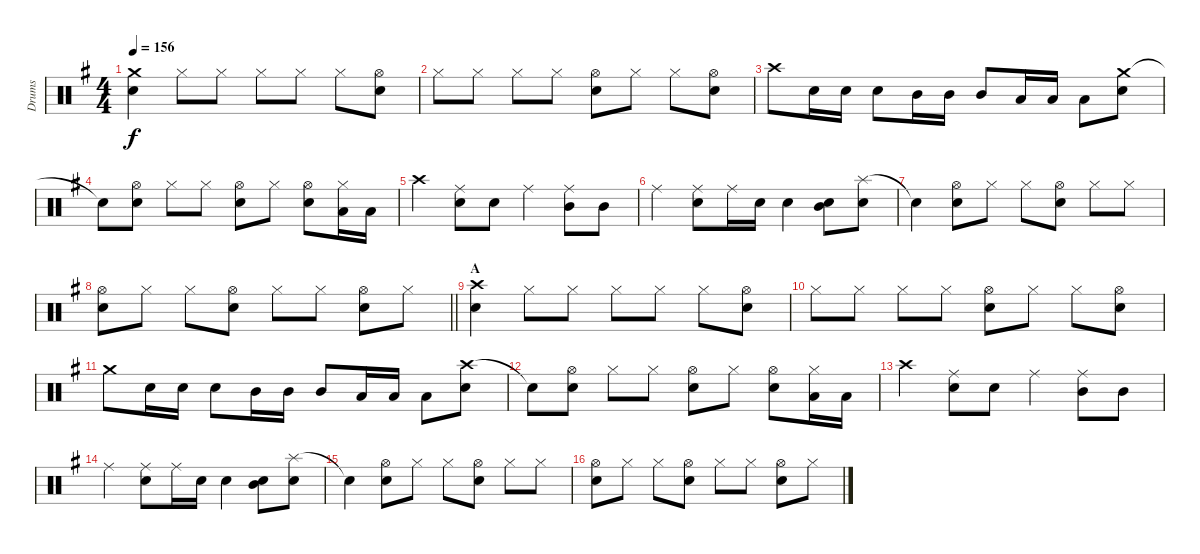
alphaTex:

\track ("Drums" "Drums") {instrument percussion}
\staff {score}
\articulation defaults
\ts (4 4)
\tempo 156
\clef neutral
\ks g
("Crash medium (hit)" "Snare (hit) 2").4{dy f} "Hi-Hat (closed)".8 "Hi-Hat (closed)".8 "Hi-Hat (closed)".8 "Hi-Hat (closed)".8 "Hi-Hat (closed)".8 ("Hi-Hat (open)" "Snare (hit) 2").8 |
"Hi-Hat (closed)".8 "Hi-Hat (closed)".8 "Hi-Hat (closed)".8 "Hi-Hat (closed)".8 ("Hi-Hat (open)" "Snare (hit) 2").8 "Hi-Hat (closed)".8 "Hi-Hat (closed)".8 ("Hi-Hat (open)" "Snare (hit) 2").8 |
"Crash high (hit)".8 "Snare (hit) 2".16 "Snare (hit) 2".16 "Snare (hit) 2".8 "Mid Tom (hit)".16 "Mid Tom (hit)".16 "Mid Tom (hit)".8 "Low Tom (hit)".16 "Low Tom (hit)".16 "Low Tom (hit)".8 ("Crash medium (hit)" "Snare (hit) 2").8 |
"Snare (hit)"{t}.8 ("Hi-Hat (open)" "Snare (hit) 2").8 "Hi-Hat (closed)".8 "Hi-Hat (closed)".8 ("Hi-Hat (open)" "Snare (hit) 2").8 "Hi-Hat (closed)".8 ("Hi-Hat (open)" "Snare (hit) 2").8 ("Hi-Hat (closed)" "Low Tom (hit)").16 "Low Tom (hit)".16 |
"Crash high (hit)".4 ("Ride (middle)" "Snare (hit) 2").8 "Snare (hit) 2".8 "Ride (middle)".4 ("Ride (middle)" "Mid Tom (hit)").8 "Mid Tom (hit)".8 |
"Ride (middle)".4 ("Ride (middle)" "Snare (hit) 2").8 "Ride (middle)".16 "Snare (hit) 2".16 "Snare (hit) 2".4 ("Mid Tom (hit)" "Snare (hit) 2").8 ("Splash (hit)" "Snare (hit) 2").8 |
"Snare (hit)"{t}.4 ("Hi-Hat (open)" "Snare (hit) 2").8 "Hi-Hat (closed)".8 "Hi-Hat (closed)".8 ("Hi-Hat (open)" "Snare (hit) 2").8 "Hi-Hat (closed)".8 "Hi-Hat (closed)".8 |
\barLineRight lightlight
("Hi-Hat (open)" "Snare (hit) 2").8 "Hi-Hat (closed)".8 "Hi-Hat (closed)".8 ("Hi-Hat (open)" "Snare (hit) 2").8 "Hi-Hat (closed)".8 "Hi-Hat (closed)".8 ("Hi-Hat (open)" "Snare (hit) 2").8 "Hi-Hat (closed)".8 |
\section ("" "A")
("Crash high (hit)" "Snare (hit) 2").4 "Hi-Hat (closed)".8 "Hi-Hat (closed)".8 "Hi-Hat (closed)".8 "Hi-Hat (closed)".8 "Hi-Hat (closed)".8 ("Hi-Hat (open)" "Snare (hit) 2").8 |
"Hi-Hat (closed)".8 "Hi-Hat (closed)".8 "Hi-Hat (closed)".8 "Hi-Hat (closed)".8 ("Hi-Hat (open)" "Snare (hit) 2").8 "Hi-Hat (closed)".8 "Hi-Hat (closed)".8 ("Hi-Hat (open)" "Snare (hit) 2").8 |
"Crash medium (hit)".8 "Snare (hit) 2".16 "Snare (hit) 2".16 "Snare (hit) 2".8 "Mid Tom (hit)".16 "Mid Tom (hit)".16 "Mid Tom (hit)".8 "Low Tom (hit)".16 "Low Tom (hit)".16 "Low Tom (hit)".8 ("Crash high (hit)" "Snare (hit) 2").8 |
"Snare (hit)"{t}.8 ("Hi-Hat (open)" "Snare (hit) 2").8 "Hi-Hat (closed)".8 "Hi-Hat (closed)".8 ("Hi-Hat (open)" "Snare (hit) 2").8 "Hi-Hat (closed)".8 ("Hi-Hat (open)" "Snare (hit) 2").8 ("Hi-Hat (closed)" "Low Tom (hit)").16 "Low Tom (hit)".16 |
"Crash high (hit)".4 ("Ride (middle)" "Snare (hit) 2").8 "Snare (hit) 2".8 "Ride (middle)".4 ("Ride (middle)" "Mid Tom (hit)").8 "Mid Tom (hit)".8 |
"Ride (middle)".4 ("Ride (middle)" "Snare (hit) 2").8 "Ride (middle)".16 "Snare (hit) 2".16 "Snare (hit) 2".4 ("Mid Tom (hit)" "Snare (hit) 2").8 ("Splash (hit)" "Snare (hit) 2").8 |
"Snare (hit)"{t}.4 ("Hi-Hat (open)" "Snare (hit) 2").8 "Hi-Hat (closed)".8 "Hi-Hat (closed)".8 ("Hi-Hat (open)" "Snare (hit) 2").8 "Hi-Hat (closed)".8 "Hi-Hat (closed)".8 |
("Hi-Hat (open)" "Snare (hit) 2").8 "Hi-Hat (closed)".8 "Hi-Hat (closed)".8 ("Hi-Hat (open)" "Snare (hit) 2").8 "Hi-Hat (closed)".8 "Hi-Hat (closed)".8 ("Hi-Hat (open)" "Snare (hit) 2").8 "Hi-Hat (closed)".8
